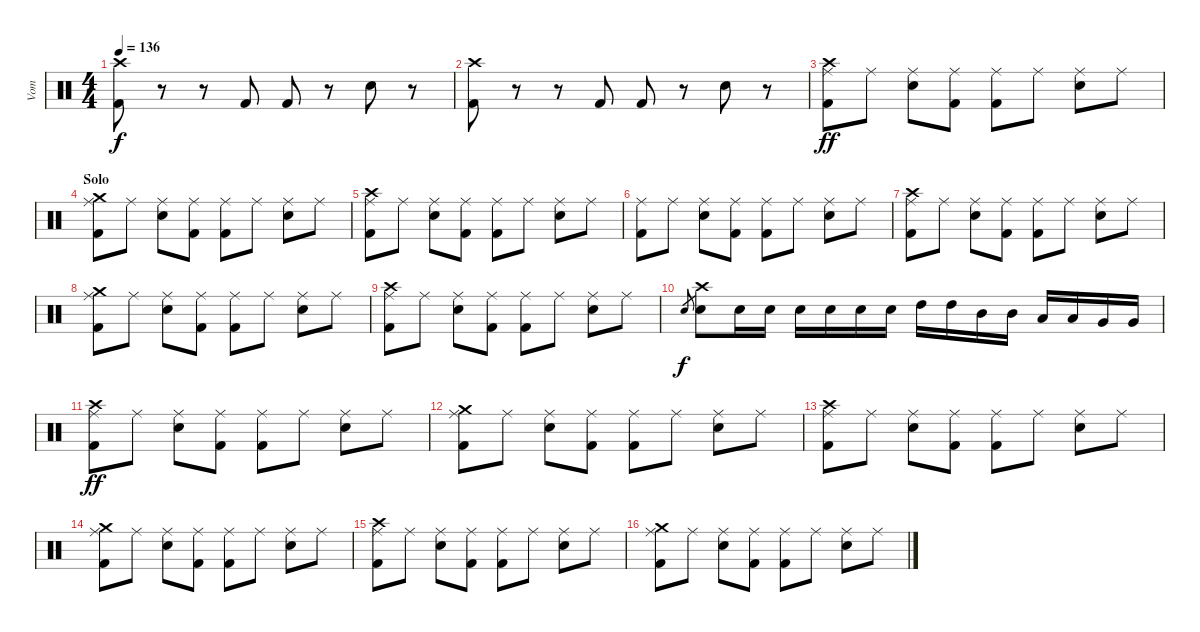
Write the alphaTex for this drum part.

\track ("Vom" "Vom") {instrument percussion}
\staff {score}
\articulation defaults
\ts (4 4)
\tempo 136
\clef neutral
\ks c
("Kick (hit) 2" "Crash high (hit)").8{dy f} r.8 r.8 "Kick (hit) 2".8 "Kick (hit) 2".8 r.8 "Snare (hit) 2".8 r.8 |
("Kick (hit) 2" "Crash high (hit)").8 r.8 r.8 "Kick (hit) 2".8 "Kick (hit) 2".8 r.8 "Snare (hit) 2".8 r.8 |
("Ride (middle)" "Kick (hit) 2" "Crash high (hit)").8{dy ff} "Ride (middle)".8 ("Ride (middle)" "Snare (hit) 2").8 ("Ride (middle)" "Kick (hit) 2").8 ("Ride (middle)" "Kick (hit) 2").8 "Ride (middle)".8 ("Ride (middle)" "Snare (hit) 2").8 "Ride (middle)".8 |
\section ("" "Solo")
("Ride (middle)" "Kick (hit) 2" "Crash medium (hit)").8 "Ride (middle)".8 ("Ride (middle)" "Snare (hit) 2").8 ("Ride (middle)" "Kick (hit) 2").8 ("Ride (middle)" "Kick (hit) 2").8 "Ride (middle)".8 ("Ride (middle)" "Snare (hit) 2").8 "Ride (middle)".8 |
("Ride (middle)" "Kick (hit) 2" "Crash high (hit)").8 "Ride (middle)".8 ("Ride (middle)" "Snare (hit) 2").8 ("Ride (middle)" "Kick (hit) 2").8 ("Ride (middle)" "Kick (hit) 2").8 "Ride (middle)".8 ("Ride (middle)" "Snare (hit) 2").8 "Ride (middle)".8 |
("Ride (middle)" "Kick (hit) 2").8 "Ride (middle)".8 ("Ride (middle)" "Snare (hit) 2").8 ("Ride (middle)" "Kick (hit) 2").8 ("Ride (middle)" "Kick (hit) 2").8 "Ride (middle)".8 ("Ride (middle)" "Snare (hit) 2").8 "Ride (middle)".8 |
("Ride (middle)" "Kick (hit) 2" "Crash high (hit)").8 "Ride (middle)".8 ("Ride (middle)" "Snare (hit) 2").8 ("Ride (middle)" "Kick (hit) 2").8 ("Ride (middle)" "Kick (hit) 2").8 "Ride (middle)".8 ("Ride (middle)" "Snare (hit) 2").8 "Ride (middle)".8 |
("Ride (middle)" "Kick (hit) 2" "Crash medium (hit)").8 "Ride (middle)".8 ("Ride (middle)" "Snare (hit) 2").8 ("Ride (middle)" "Kick (hit) 2").8 ("Ride (middle)" "Kick (hit) 2").8 "Ride (middle)".8 ("Ride (middle)" "Snare (hit) 2").8 "Ride (middle)".8 |
("Ride (middle)" "Kick (hit) 2" "Crash high (hit)").8 "Ride (middle)".8 ("Ride (middle)" "Snare (hit) 2").8 ("Ride (middle)" "Kick (hit) 2").8 ("Ride (middle)" "Kick (hit) 2").8 "Ride (middle)".8 ("Ride (middle)" "Snare (hit) 2").8 "Ride (middle)".8 |
"Snare (hit) 2".8{gr dy f} ("Snare (hit) 2" "Crash high (hit)").8 "Snare (hit) 2".16 "Snare (hit) 2".16 "Snare (hit) 2".16 "Snare (hit) 2".16 "Snare (hit) 2".16 "Snare (hit) 2".16 "High Tom (hit)".16 "High Tom (hit)".16 "Mid Tom (hit)".16 "Mid Tom (hit)".16 "Low Tom (hit)".16 "Low Tom (hit)".16 "Very Low Tom (hit)".16 "Very Low Tom (hit)".16 |
("Ride (middle)" "Kick (hit) 2" "Crash high (hit)").8{dy ff} "Ride (middle)".8 ("Ride (middle)" "Snare (hit) 2").8 ("Ride (middle)" "Kick (hit) 2").8 ("Ride (middle)" "Kick (hit) 2").8 "Ride (middle)".8 ("Ride (middle)" "Snare (hit) 2").8 "Ride (middle)".8 |
("Ride (middle)" "Kick (hit) 2" "Crash medium (hit)").8 "Ride (middle)".8 ("Ride (middle)" "Snare (hit) 2").8 ("Ride (middle)" "Kick (hit) 2").8 ("Ride (middle)" "Kick (hit) 2").8 "Ride (middle)".8 ("Ride (middle)" "Snare (hit) 2").8 "Ride (middle)".8 |
("Ride (middle)" "Kick (hit) 2" "Crash high (hit)").8 "Ride (middle)".8 ("Ride (middle)" "Snare (hit) 2").8 ("Ride (middle)" "Kick (hit) 2").8 ("Ride (middle)" "Kick (hit) 2").8 "Ride (middle)".8 ("Ride (middle)" "Snare (hit) 2").8 "Ride (middle)".8 |
("Ride (middle)" "Kick (hit) 2" "Crash medium (hit)").8 "Ride (middle)".8 ("Ride (middle)" "Snare (hit) 2").8 ("Ride (middle)" "Kick (hit) 2").8 ("Ride (middle)" "Kick (hit) 2").8 "Ride (middle)".8 ("Ride (middle)" "Snare (hit) 2").8 "Ride (middle)".8 |
("Ride (middle)" "Kick (hit) 2" "Crash high (hit)").8 "Ride (middle)".8 ("Ride (middle)" "Snare (hit) 2").8 ("Ride (middle)" "Kick (hit) 2").8 ("Ride (middle)" "Kick (hit) 2").8 "Ride (middle)".8 ("Ride (middle)" "Snare (hit) 2").8 "Ride (middle)".8 |
("Ride (middle)" "Kick (hit) 2" "Crash medium (hit)").8 "Ride (middle)".8 ("Ride (middle)" "Snare (hit) 2").8 ("Ride (middle)" "Kick (hit) 2").8 ("Ride (middle)" "Kick (hit) 2").8 "Ride (middle)".8 ("Ride (middle)" "Snare (hit) 2").8 "Ride (middle)".8
